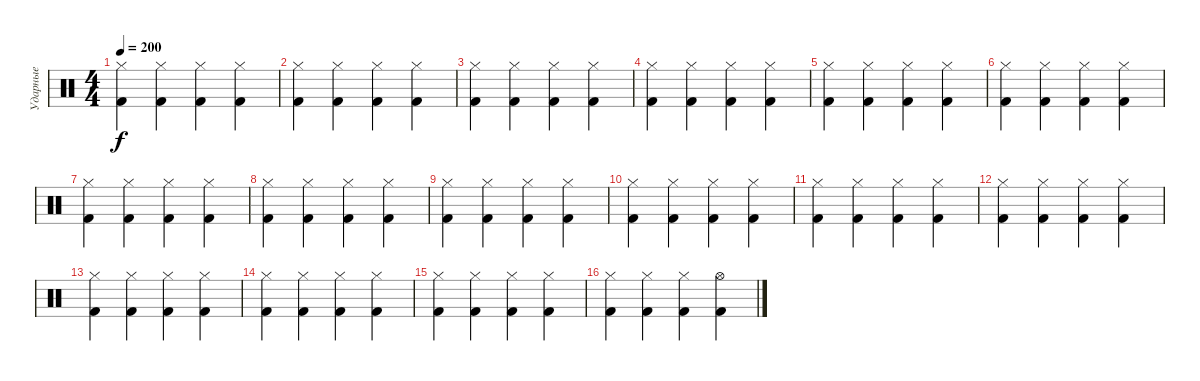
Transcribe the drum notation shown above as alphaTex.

\track ("Ударные" "Ударные") {instrument percussion}
\staff {score}
\articulation defaults
\ts (4 4)
\tempo 200
\clef neutral
\ks c
("Kick (hit) 2" "Hi-Hat (closed)").4{dy f} ("Kick (hit) 2" "Hi-Hat (closed)").4 ("Kick (hit) 2" "Hi-Hat (closed)").4 ("Kick (hit) 2" "Hi-Hat (closed)").4 |
("Kick (hit) 2" "Hi-Hat (closed)").4 ("Kick (hit) 2" "Hi-Hat (closed)").4 ("Kick (hit) 2" "Hi-Hat (closed)").4 ("Kick (hit) 2" "Hi-Hat (closed)").4 |
("Kick (hit) 2" "Hi-Hat (closed)").4 ("Kick (hit) 2" "Hi-Hat (closed)").4 ("Kick (hit) 2" "Hi-Hat (closed)").4 ("Kick (hit) 2" "Hi-Hat (closed)").4 |
("Kick (hit) 2" "Hi-Hat (closed)").4 ("Kick (hit) 2" "Hi-Hat (closed)").4 ("Kick (hit) 2" "Hi-Hat (closed)").4 ("Kick (hit) 2" "Hi-Hat (closed)").4 |
("Kick (hit) 2" "Hi-Hat (closed)").4 ("Kick (hit) 2" "Hi-Hat (closed)").4 ("Kick (hit) 2" "Hi-Hat (closed)").4 ("Kick (hit) 2" "Hi-Hat (closed)").4 |
("Kick (hit) 2" "Hi-Hat (closed)").4 ("Kick (hit) 2" "Hi-Hat (closed)").4 ("Kick (hit) 2" "Hi-Hat (closed)").4 ("Kick (hit) 2" "Hi-Hat (closed)").4 |
("Kick (hit) 2" "Hi-Hat (closed)").4 ("Kick (hit) 2" "Hi-Hat (closed)").4 ("Kick (hit) 2" "Hi-Hat (closed)").4 ("Kick (hit) 2" "Hi-Hat (closed)").4 |
("Kick (hit) 2" "Hi-Hat (closed)").4 ("Kick (hit) 2" "Hi-Hat (closed)").4 ("Kick (hit) 2" "Hi-Hat (closed)").4 ("Kick (hit) 2" "Hi-Hat (closed)").4 |
("Kick (hit) 2" "Hi-Hat (closed)").4 ("Kick (hit) 2" "Hi-Hat (closed)").4 ("Kick (hit) 2" "Hi-Hat (closed)").4 ("Kick (hit) 2" "Hi-Hat (closed)").4 |
("Kick (hit) 2" "Hi-Hat (closed)").4 ("Kick (hit) 2" "Hi-Hat (closed)").4 ("Kick (hit) 2" "Hi-Hat (closed)").4 ("Kick (hit) 2" "Hi-Hat (closed)").4 |
("Kick (hit) 2" "Hi-Hat (closed)").4 ("Kick (hit) 2" "Hi-Hat (closed)").4 ("Kick (hit) 2" "Hi-Hat (closed)").4 ("Kick (hit) 2" "Hi-Hat (closed)").4 |
("Kick (hit) 2" "Hi-Hat (closed)").4 ("Kick (hit) 2" "Hi-Hat (closed)").4 ("Kick (hit) 2" "Hi-Hat (closed)").4 ("Kick (hit) 2" "Hi-Hat (closed)").4 |
("Kick (hit) 2" "Hi-Hat (closed)").4 ("Kick (hit) 2" "Hi-Hat (closed)").4 ("Kick (hit) 2" "Hi-Hat (closed)").4 ("Kick (hit) 2" "Hi-Hat (closed)").4 |
("Kick (hit) 2" "Hi-Hat (closed)").4 ("Kick (hit) 2" "Hi-Hat (closed)").4 ("Kick (hit) 2" "Hi-Hat (closed)").4 ("Kick (hit) 2" "Hi-Hat (closed)").4 |
("Kick (hit) 2" "Hi-Hat (closed)").4 ("Kick (hit) 2" "Hi-Hat (closed)").4 ("Kick (hit) 2" "Hi-Hat (closed)").4 ("Kick (hit) 2" "Hi-Hat (closed)").4 |
("Kick (hit) 2" "Hi-Hat (closed)").4 ("Kick (hit) 2" "Hi-Hat (closed)").4 ("Kick (hit) 2" "Hi-Hat (closed)").4 ("Kick (hit) 2" "Hi-Hat (open)").4
